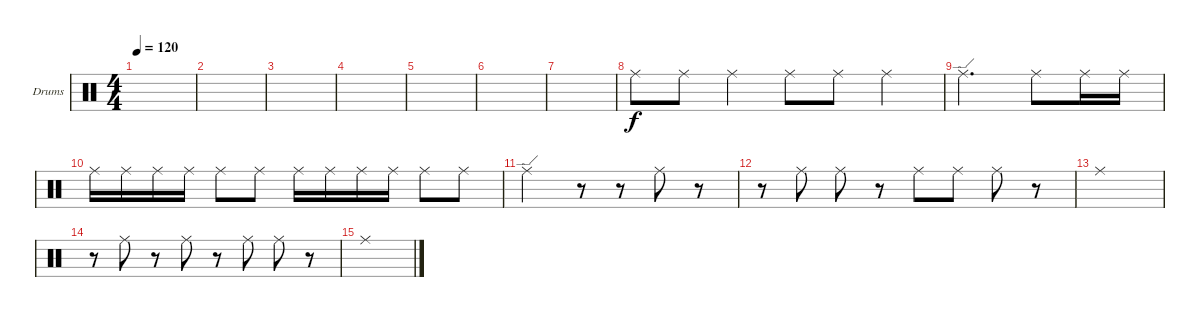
\bracketExtendMode groupsimilarinstruments
\firstSystemTrackNameOrientation horizontal
\otherSystemsTrackNameOrientation horizontal
\track ("Drumkit" "Drums") {instrument percussion}
\staff {score}
\articulation defaults
\ts (4 4)
\tempo 120
\clef neutral
\scale
0.474178
\ks c
|
\scale
0.262911 |
\scale
0.262911 |
\scale
0.333333 |
\scale
0.333333 |
\scale
0.333333 |
\scale
0.333333 |
\scale
0.333333 "Ride (middle)".8 "Ride (middle)".8 "Ride (middle)".4 "Ride (middle)".8 "Ride (middle)".8 "Ride (middle)".4 |
\scale
0.333333 "Ride (edge)".2{d} "Ride (middle)".8 "Ride (middle)".16 "Ride (middle)".16 |
\scale
0.333333 "Ride (middle)".16 "Ride (middle)".16 "Ride (middle)".16 "Ride (middle)".16 "Ride (middle)".8 "Ride (middle)".8 "Ride (middle)".16 "Ride (middle)".16 "Ride (middle)".16 "Ride (middle)".16 "Ride (middle)".8 "Ride (middle)".8 |
\scale
0.333333 "Ride (edge)".2 r.8 r.8 "Ride (middle)".8 r.8 |
\scale
0.333333 r.8 "Ride (middle)".8 "Ride (middle)".8 r.8 "Ride (middle)".8 "Ride (middle)".8 "Ride (middle)".8 r.8 |
\scale
0.333333 "Ride (middle)".1 |
\scale
0.333333 r.8 "Ride (middle)".8 r.8 "Ride (middle)".8 r.8 "Ride (middle)".8 "Ride (middle)".8 r.8 |
\scale
0.333333 "Ride (middle)".1 |
\scale
0.333333
